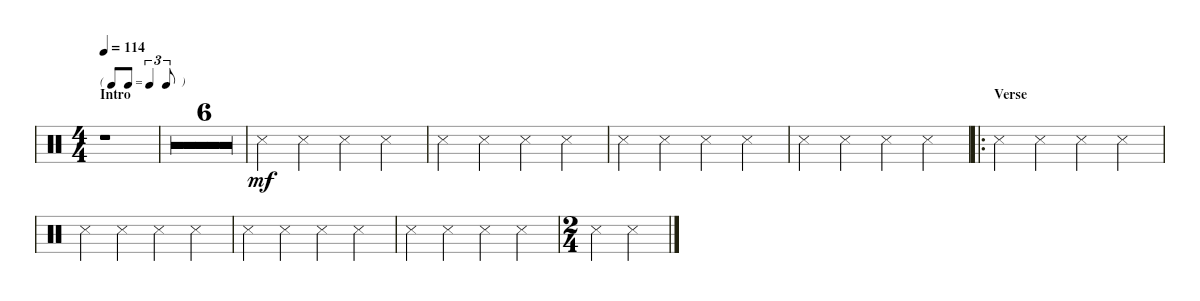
\defaultSystemsLayout 4
\bracketExtendMode groupsimilarinstruments
\singleTrackTrackNamePolicy hidden
\multiTrackTrackNamePolicy hidden
\firstSystemTrackNameOrientation horizontal
\otherSystemsTrackNameOrientation horizontal
\defaultBarNumberDisplay Hide
\track ("Drumkit" "Drums") {multiBarRest instrument percussion}
\staff {score}
\articulation defaults
\ts (4 4)
\tf triplet8th
\section ("" "Intro")
\tempo 114
\clef neutral
\ks c
r.1{dy mf} |
r.1 |
r.1 |
r.1 |
r.1 |
r.1 |
r.1 |
"Snare (side stick) 3".4 "Snare (side stick) 3".4 "Snare (side stick) 3".4 "Snare (side stick) 3".4 |
"Snare (side stick) 3".4 "Snare (side stick) 3".4 "Snare (side stick) 3".4 "Snare (side stick) 3".4 |
"Snare (side stick) 3".4 "Snare (side stick) 3".4 "Snare (side stick) 3".4 "Snare (side stick) 3".4 |
"Snare (side stick) 3".4 "Snare (side stick) 3".4 "Snare (side stick) 3".4 "Snare (side stick) 3".4 |
\ro
\section ("" "Verse")
"Snare (side stick) 3".4 "Snare (side stick) 3".4 "Snare (side stick) 3".4 "Snare (side stick) 3".4 |
"Snare (side stick) 3".4 "Snare (side stick) 3".4 "Snare (side stick) 3".4 "Snare (side stick) 3".4 |
"Snare (side stick) 3".4 "Snare (side stick) 3".4 "Snare (side stick) 3".4 "Snare (side stick) 3".4 |
"Snare (side stick) 3".4 "Snare (side stick) 3".4 "Snare (side stick) 3".4 "Snare (side stick) 3".4 |
\ts (2 4)
"Snare (side stick) 3".4 "Snare (side stick) 3".4
